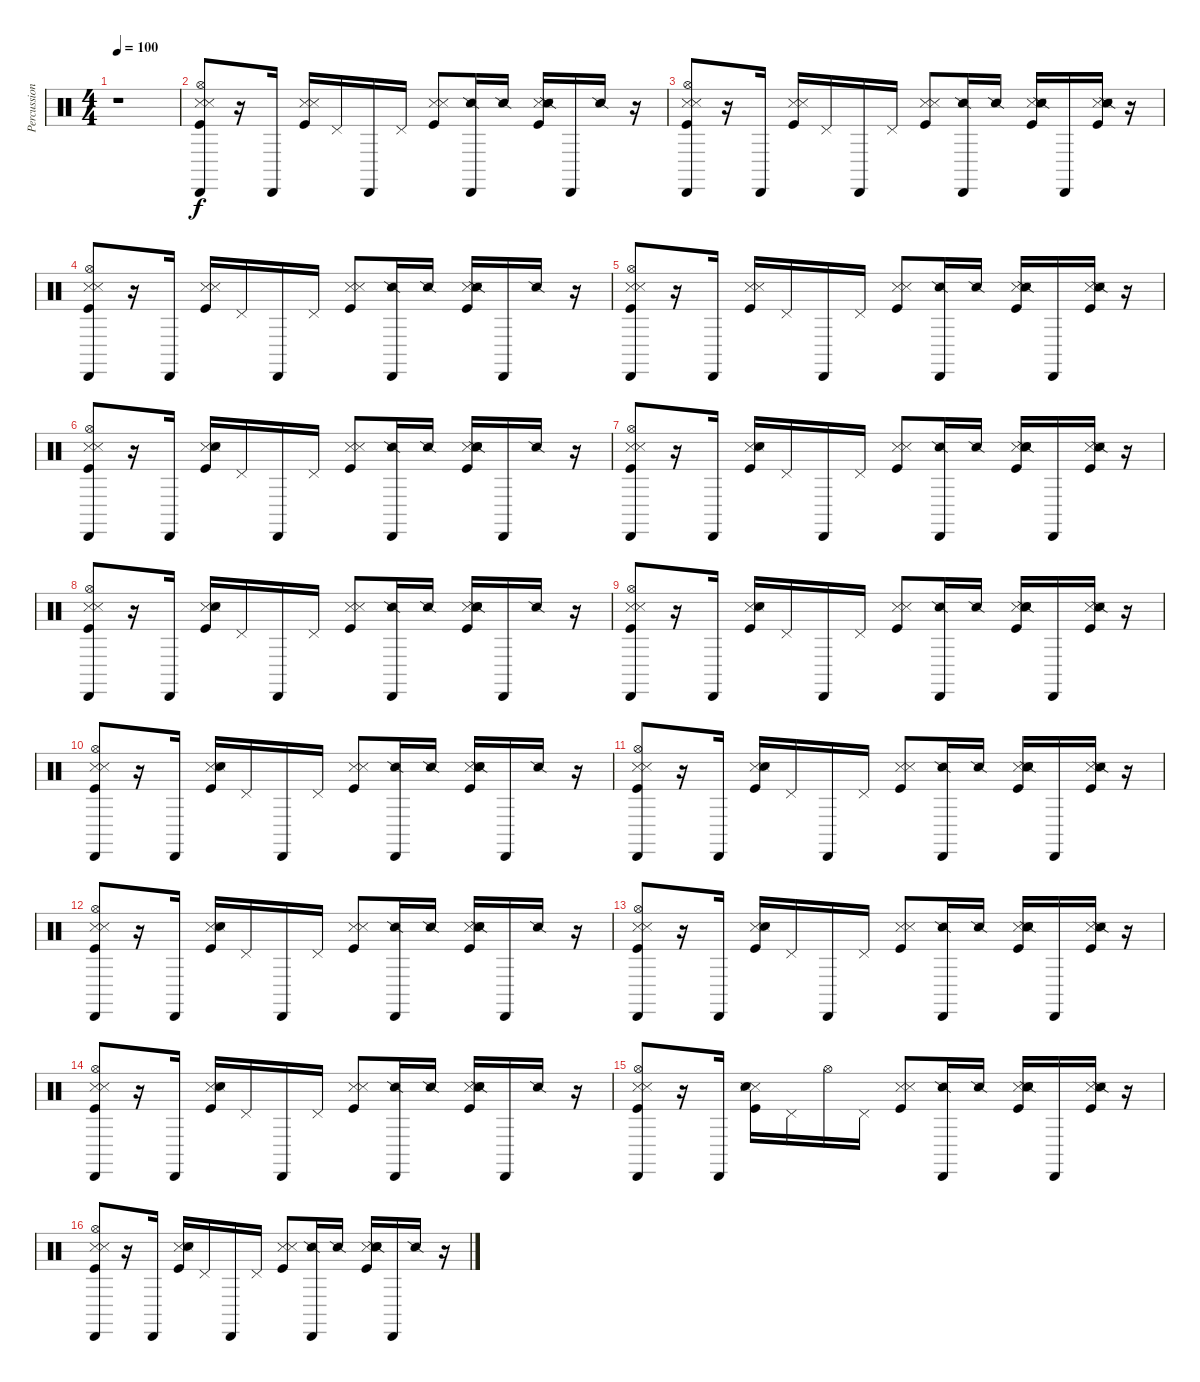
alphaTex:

\track ("Percussion" "Percussion") {instrument percussion}
\staff {score}
\articulation defaults
\ts (4 4)
\tempo 100
\clef neutral
\ks c
r.1{dy f} |
("Snare (side stick) 3" "Hi-Hat (open)" "Kick (hit)" "Metronome (hit)" "Cabasa (hit)").8 r.16 "Cabasa (hit)".16 ("Metronome (hit)" "Kick (hit)" "Snare (side stick) 3").16 "Pedal Hi-Hat (hit)".16 "Cabasa (hit)".16 "Pedal Hi-Hat (hit)".16 ("Metronome (hit)" "Kick (hit)" "Snare (side stick) 3").8 ("Cabasa (hit)" "Snare (side stick) 2").16 "Snare (side stick) 2".16 ("Metronome (hit)" "Kick (hit)" "Snare (side stick) 3" "Snare (side stick) 2").16 "Cabasa (hit)".16 "Snare (side stick) 2".16 r.16 |
("Cabasa (hit)" "Metronome (hit)" "Kick (hit)" "Hi-Hat (open)" "Snare (side stick) 3").8 r.16 "Cabasa (hit)".16 ("Metronome (hit)" "Kick (hit)" "Snare (side stick) 3").16 "Pedal Hi-Hat (hit)".16 "Cabasa (hit)".16 "Pedal Hi-Hat (hit)".16 ("Metronome (hit)" "Kick (hit)" "Snare (side stick) 3").8 ("Cabasa (hit)" "Snare (side stick) 2").16 "Snare (side stick) 2".16 ("Metronome (hit)" "Kick (hit)" "Snare (side stick) 3" "Snare (side stick) 2").16 "Cabasa (hit)".16 ("Metronome (hit)" "Kick (hit)" "Snare (side stick) 3" "Snare (side stick) 2").16 r.16 |
("Cabasa (hit)" "Metronome (hit)" "Kick (hit)" "Hi-Hat (open)" "Snare (side stick) 3").8 r.16 "Cabasa (hit)".16 ("Metronome (hit)" "Kick (hit)" "Snare (side stick) 3").16 "Pedal Hi-Hat (hit)".16 "Cabasa (hit)".16 "Pedal Hi-Hat (hit)".16 ("Metronome (hit)" "Kick (hit)" "Snare (side stick) 3").8 ("Cabasa (hit)" "Snare (side stick) 2").16 "Snare (side stick) 2".16 ("Metronome (hit)" "Kick (hit)" "Snare (side stick) 3" "Snare (side stick) 2").16 "Cabasa (hit)".16 "Snare (side stick) 2".16 r.16 |
("Cabasa (hit)" "Metronome (hit)" "Kick (hit)" "Hi-Hat (open)" "Snare (side stick) 3").8 r.16 "Cabasa (hit)".16 ("Metronome (hit)" "Kick (hit)" "Snare (side stick) 3").16 "Pedal Hi-Hat (hit)".16 "Cabasa (hit)".16 "Pedal Hi-Hat (hit)".16 ("Metronome (hit)" "Kick (hit)" "Snare (side stick) 3").8 ("Cabasa (hit)" "Snare (side stick) 2").16 "Snare (side stick) 2".16 ("Metronome (hit)" "Kick (hit)" "Snare (side stick) 3" "Snare (side stick) 2").16 "Cabasa (hit)".16 ("Metronome (hit)" "Kick (hit)" "Snare (side stick) 3" "Snare (side stick) 2").16 r.16 |
("Cabasa (hit)" "Metronome (hit)" "Kick (hit)" "Hi-Hat (open)" "Snare (side stick) 3").8 r.16 "Cabasa (hit)".16 ("Metronome (hit)" "Kick (hit)" "Snare (side stick) 3" "Snare (hit) 2").16 "Pedal Hi-Hat (hit)".16 "Cabasa (hit)".16 "Pedal Hi-Hat (hit)".16 ("Metronome (hit)" "Kick (hit)" "Snare (side stick) 3").8 ("Cabasa (hit)" "Snare (side stick) 2").16 "Snare (side stick) 2".16 ("Metronome (hit)" "Kick (hit)" "Snare (side stick) 3" "Snare (hit) 2" "Snare (side stick) 2").16 "Cabasa (hit)".16 "Snare (side stick) 2".16 r.16 |
("Cabasa (hit)" "Metronome (hit)" "Kick (hit)" "Hi-Hat (open)" "Snare (side stick) 3").8 r.16 "Cabasa (hit)".16 ("Metronome (hit)" "Kick (hit)" "Snare (side stick) 3" "Snare (hit) 2").16 "Pedal Hi-Hat (hit)".16 "Cabasa (hit)".16 "Pedal Hi-Hat (hit)".16 ("Metronome (hit)" "Kick (hit)" "Snare (side stick) 3").8 ("Cabasa (hit)" "Snare (side stick) 2").16 "Snare (side stick) 2".16 ("Metronome (hit)" "Kick (hit)" "Snare (side stick) 3" "Snare (hit) 2" "Snare (side stick) 2").16 "Cabasa (hit)".16 ("Metronome (hit)" "Kick (hit)" "Snare (side stick) 3" "Snare (side stick) 2").16 r.16 |
("Cabasa (hit)" "Metronome (hit)" "Kick (hit)" "Hi-Hat (open)" "Snare (side stick) 3").8 r.16 "Cabasa (hit)".16 ("Metronome (hit)" "Kick (hit)" "Snare (side stick) 3" "Snare (hit) 2").16 "Pedal Hi-Hat (hit)".16 "Cabasa (hit)".16 "Pedal Hi-Hat (hit)".16 ("Metronome (hit)" "Kick (hit)" "Snare (side stick) 3").8 ("Cabasa (hit)" "Snare (side stick) 2").16 "Snare (side stick) 2".16 ("Metronome (hit)" "Kick (hit)" "Snare (side stick) 3" "Snare (hit) 2" "Snare (side stick) 2").16 "Cabasa (hit)".16 "Snare (side stick) 2".16 r.16 |
("Cabasa (hit)" "Metronome (hit)" "Hi-Hat (open)" "Kick (hit)" "Snare (side stick) 3").8 r.16 "Cabasa (hit)".16 ("Metronome (hit)" "Kick (hit)" "Snare (side stick) 3" "Snare (hit) 2").16 "Pedal Hi-Hat (hit)".16 "Cabasa (hit)".16 "Pedal Hi-Hat (hit)".16 ("Metronome (hit)" "Kick (hit)" "Snare (side stick) 3").8 ("Cabasa (hit)" "Snare (side stick) 2").16 "Snare (side stick) 2".16 ("Metronome (hit)" "Kick (hit)" "Snare (side stick) 3" "Snare (hit) 2" "Snare (side stick) 2").16 "Cabasa (hit)".16 ("Metronome (hit)" "Kick (hit)" "Snare (side stick) 3" "Snare (side stick) 2").16 r.16 |
("Cabasa (hit)" "Metronome (hit)" "Kick (hit)" "Hi-Hat (open)" "Snare (side stick) 3").8 r.16 "Cabasa (hit)".16 ("Metronome (hit)" "Kick (hit)" "Snare (side stick) 3" "Snare (hit) 2").16 "Pedal Hi-Hat (hit)".16 "Cabasa (hit)".16 "Pedal Hi-Hat (hit)".16 ("Metronome (hit)" "Kick (hit)" "Snare (side stick) 3").8 ("Cabasa (hit)" "Snare (side stick) 2").16 "Snare (side stick) 2".16 ("Metronome (hit)" "Kick (hit)" "Snare (side stick) 3" "Snare (hit) 2" "Snare (side stick) 2").16 "Cabasa (hit)".16 "Snare (side stick) 2".16 r.16 |
("Cabasa (hit)" "Metronome (hit)" "Kick (hit)" "Hi-Hat (open)" "Snare (side stick) 3").8 r.16 "Cabasa (hit)".16 ("Metronome (hit)" "Kick (hit)" "Snare (side stick) 3" "Snare (hit) 2").16 "Pedal Hi-Hat (hit)".16 "Cabasa (hit)".16 "Pedal Hi-Hat (hit)".16 ("Metronome (hit)" "Kick (hit)" "Snare (side stick) 3").8 ("Cabasa (hit)" "Snare (side stick) 2").16 "Snare (side stick) 2".16 ("Metronome (hit)" "Kick (hit)" "Snare (side stick) 3" "Snare (hit) 2" "Snare (side stick) 2").16 "Cabasa (hit)".16 ("Metronome (hit)" "Kick (hit)" "Snare (side stick) 3" "Snare (side stick) 2").16 r.16 |
("Cabasa (hit)" "Metronome (hit)" "Kick (hit)" "Hi-Hat (open)" "Snare (side stick) 3").8 r.16 "Cabasa (hit)".16 ("Metronome (hit)" "Kick (hit)" "Snare (side stick) 3" "Snare (hit) 2").16 "Pedal Hi-Hat (hit)".16 "Cabasa (hit)".16 "Pedal Hi-Hat (hit)".16 ("Metronome (hit)" "Kick (hit)" "Snare (side stick) 3").8 ("Cabasa (hit)" "Snare (side stick) 2").16 "Snare (side stick) 2".16 ("Metronome (hit)" "Kick (hit)" "Snare (side stick) 3" "Snare (hit) 2" "Snare (side stick) 2").16 "Cabasa (hit)".16 "Snare (side stick) 2".16 r.16 |
("Cabasa (hit)" "Metronome (hit)" "Hi-Hat (open)" "Kick (hit)" "Snare (side stick) 3").8 r.16 "Cabasa (hit)".16 ("Metronome (hit)" "Kick (hit)" "Snare (side stick) 3" "Snare (hit) 2").16 "Pedal Hi-Hat (hit)".16 "Cabasa (hit)".16 "Pedal Hi-Hat (hit)".16 ("Metronome (hit)" "Kick (hit)" "Snare (side stick) 3").8 ("Cabasa (hit)" "Snare (side stick) 2").16 "Snare (side stick) 2".16 ("Metronome (hit)" "Kick (hit)" "Snare (side stick) 3" "Snare (hit) 2" "Snare (side stick) 2").16 "Cabasa (hit)".16 ("Metronome (hit)" "Kick (hit)" "Snare (side stick) 3" "Snare (side stick) 2").16 r.16 |
("Cabasa (hit)" "Metronome (hit)" "Kick (hit)" "Hi-Hat (open)" "Snare (side stick) 3").8 r.16 "Cabasa (hit)".16 ("Metronome (hit)" "Kick (hit)" "Snare (side stick) 3" "Snare (hit) 2").16 "Pedal Hi-Hat (hit)".16 "Cabasa (hit)".16 "Pedal Hi-Hat (hit)".16 ("Metronome (hit)" "Kick (hit)" "Snare (side stick) 3").8 ("Cabasa (hit)" "Snare (side stick) 2").16 "Snare (side stick) 2".16 ("Metronome (hit)" "Kick (hit)" "Snare (side stick) 3" "Snare (hit) 2" "Snare (side stick) 2").16 "Cabasa (hit)".16 "Snare (side stick) 2".16 r.16 |
("Cabasa (hit)" "Metronome (hit)" "Kick (hit)" "Hi-Hat (open)" "Snare (side stick) 3").8 r.16 "Cabasa (hit)".16 ("Metronome (hit)" "Kick (hit)" "Snare (side stick) 3" "Snare (hit) 2").16 "Pedal Hi-Hat (hit)".16 "Hi-Hat (open)".16 "Pedal Hi-Hat (hit)".16 ("Metronome (hit)" "Kick (hit)" "Snare (side stick) 3").8 ("Cabasa (hit)" "Snare (side stick) 2").16 "Snare (side stick) 2".16 ("Metronome (hit)" "Kick (hit)" "Snare (side stick) 3" "Snare (hit) 2" "Snare (side stick) 2").16 "Cabasa (hit)".16 ("Metronome (hit)" "Kick (hit)" "Snare (side stick) 3" "Snare (side stick) 2").16 r.16 |
("Cabasa (hit)" "Metronome (hit)" "Kick (hit)" "Hi-Hat (open)" "Snare (side stick) 3").8 r.16 "Cabasa (hit)".16 ("Metronome (hit)" "Kick (hit)" "Snare (side stick) 3" "Snare (hit) 2").16 "Pedal Hi-Hat (hit)".16 "Cabasa (hit)".16 "Pedal Hi-Hat (hit)".16 ("Metronome (hit)" "Kick (hit)" "Snare (side stick) 3").8 ("Cabasa (hit)" "Snare (side stick) 2").16 "Snare (side stick) 2".16 ("Metronome (hit)" "Kick (hit)" "Snare (side stick) 3" "Snare (hit) 2" "Snare (side stick) 2").16 "Cabasa (hit)".16 "Snare (side stick) 2".16 r.16
